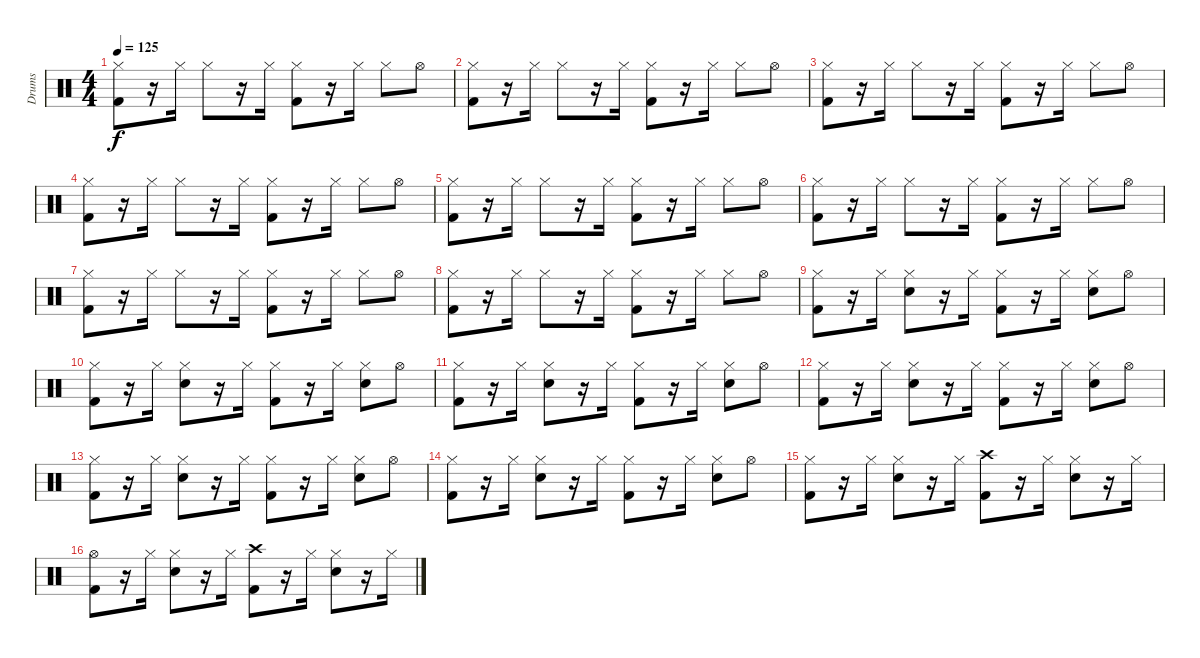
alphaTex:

\track ("Drums" "Drums") {instrument percussion}
\staff {score}
\articulation defaults
\ts (4 4)
\tempo 125
\clef neutral
\ks c
("Hi-Hat (closed)" "Kick (hit) 2").8{dy f} r.16 "Hi-Hat (closed)".16 "Hi-Hat (closed)".8 r.16 "Hi-Hat (closed)".16 ("Hi-Hat (closed)" "Kick (hit) 2").8 r.16 "Hi-Hat (closed)".16 "Hi-Hat (closed)".8 "Hi-Hat (open)".8 |
("Hi-Hat (closed)" "Kick (hit) 2").8 r.16 "Hi-Hat (closed)".16 "Hi-Hat (closed)".8 r.16 "Hi-Hat (closed)".16 ("Hi-Hat (closed)" "Kick (hit) 2").8 r.16 "Hi-Hat (closed)".16 "Hi-Hat (closed)".8 "Hi-Hat (open)".8 |
("Hi-Hat (closed)" "Kick (hit) 2").8 r.16 "Hi-Hat (closed)".16 "Hi-Hat (closed)".8 r.16 "Hi-Hat (closed)".16 ("Hi-Hat (closed)" "Kick (hit) 2").8 r.16 "Hi-Hat (closed)".16 "Hi-Hat (closed)".8 "Hi-Hat (open)".8 |
("Hi-Hat (closed)" "Kick (hit) 2").8 r.16 "Hi-Hat (closed)".16 "Hi-Hat (closed)".8 r.16 "Hi-Hat (closed)".16 ("Hi-Hat (closed)" "Kick (hit) 2").8 r.16 "Hi-Hat (closed)".16 "Hi-Hat (closed)".8 "Hi-Hat (open)".8 |
("Hi-Hat (closed)" "Kick (hit) 2").8 r.16 "Hi-Hat (closed)".16 "Hi-Hat (closed)".8 r.16 "Hi-Hat (closed)".16 ("Hi-Hat (closed)" "Kick (hit) 2").8 r.16 "Hi-Hat (closed)".16 "Hi-Hat (closed)".8 "Hi-Hat (open)".8 |
("Hi-Hat (closed)" "Kick (hit) 2").8 r.16 "Hi-Hat (closed)".16 "Hi-Hat (closed)".8 r.16 "Hi-Hat (closed)".16 ("Hi-Hat (closed)" "Kick (hit) 2").8 r.16 "Hi-Hat (closed)".16 "Hi-Hat (closed)".8 "Hi-Hat (open)".8 |
("Hi-Hat (closed)" "Kick (hit) 2").8 r.16 "Hi-Hat (closed)".16 "Hi-Hat (closed)".8 r.16 "Hi-Hat (closed)".16 ("Hi-Hat (closed)" "Kick (hit) 2").8 r.16 "Hi-Hat (closed)".16 "Hi-Hat (closed)".8 "Hi-Hat (open)".8 |
("Hi-Hat (closed)" "Kick (hit) 2").8 r.16 "Hi-Hat (closed)".16 "Hi-Hat (closed)".8 r.16 "Hi-Hat (closed)".16 ("Hi-Hat (closed)" "Kick (hit) 2").8 r.16 "Hi-Hat (closed)".16 "Hi-Hat (closed)".8 "Hi-Hat (open)".8 |
("Hi-Hat (closed)" "Kick (hit) 2").8 r.16 "Hi-Hat (closed)".16 ("Hi-Hat (closed)" "Electric Snare (hit)").8 r.16 "Hi-Hat (closed)".16 ("Hi-Hat (closed)" "Kick (hit) 2").8 r.16 "Hi-Hat (closed)".16 ("Hi-Hat (closed)" "Electric Snare (hit)").8 "Hi-Hat (open)".8 |
("Hi-Hat (closed)" "Kick (hit) 2").8 r.16 "Hi-Hat (closed)".16 ("Hi-Hat (closed)" "Electric Snare (hit)").8 r.16 "Hi-Hat (closed)".16 ("Hi-Hat (closed)" "Kick (hit) 2").8 r.16 "Hi-Hat (closed)".16 ("Hi-Hat (closed)" "Electric Snare (hit)").8 "Hi-Hat (open)".8 |
("Hi-Hat (closed)" "Kick (hit) 2").8 r.16 "Hi-Hat (closed)".16 ("Hi-Hat (closed)" "Electric Snare (hit)").8 r.16 "Hi-Hat (closed)".16 ("Hi-Hat (closed)" "Kick (hit) 2").8 r.16 "Hi-Hat (closed)".16 ("Hi-Hat (closed)" "Electric Snare (hit)").8 "Hi-Hat (open)".8 |
("Hi-Hat (closed)" "Kick (hit) 2").8 r.16 "Hi-Hat (closed)".16 ("Hi-Hat (closed)" "Electric Snare (hit)").8 r.16 "Hi-Hat (closed)".16 ("Hi-Hat (closed)" "Kick (hit) 2").8 r.16 "Hi-Hat (closed)".16 ("Hi-Hat (closed)" "Electric Snare (hit)").8 "Hi-Hat (open)".8 |
("Hi-Hat (closed)" "Kick (hit) 2").8 r.16 "Hi-Hat (closed)".16 ("Hi-Hat (closed)" "Electric Snare (hit)").8 r.16 "Hi-Hat (closed)".16 ("Hi-Hat (closed)" "Kick (hit) 2").8 r.16 "Hi-Hat (closed)".16 ("Hi-Hat (closed)" "Electric Snare (hit)").8 "Hi-Hat (open)".8 |
("Hi-Hat (closed)" "Kick (hit) 2").8 r.16 "Hi-Hat (closed)".16 ("Hi-Hat (closed)" "Electric Snare (hit)").8 r.16 "Hi-Hat (closed)".16 ("Hi-Hat (closed)" "Kick (hit) 2").8 r.16 "Hi-Hat (closed)".16 ("Hi-Hat (closed)" "Electric Snare (hit)").8 "Hi-Hat (open)".8 |
("Hi-Hat (closed)" "Kick (hit) 2").8 r.16 "Hi-Hat (closed)".16 ("Hi-Hat (closed)" "Electric Snare (hit)").8 r.16 "Hi-Hat (closed)".16 ("Crash high (hit)" "Kick (hit) 2").8 r.16 "Hi-Hat (closed)".16 ("Hi-Hat (closed)" "Electric Snare (hit)").8 r.16 "Hi-Hat (closed)".16 |
("Hi-Hat (open)" "Kick (hit) 2").8 r.16 "Hi-Hat (closed)".16 ("Hi-Hat (closed)" "Electric Snare (hit)").8 r.16 "Hi-Hat (closed)".16 ("Crash high (hit)" "Kick (hit) 2").8 r.16 "Hi-Hat (closed)".16 ("Hi-Hat (closed)" "Electric Snare (hit)").8 r.16 "Hi-Hat (closed)".16
